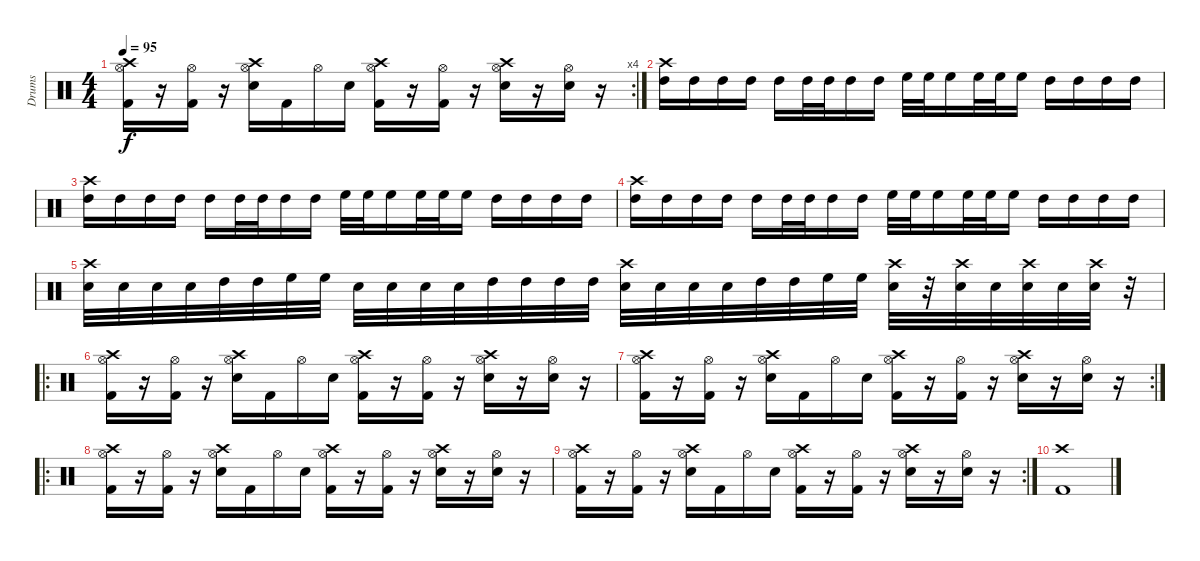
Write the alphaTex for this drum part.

\track ("Drums" "Drums") {instrument percussion}
\staff {score}
\articulation defaults
\rc 4
\ts (4 4)
\tempo 95
\clef neutral
\ks c
("Kick (hit) 2" "Hi-Hat (open)" "Crash high (hit)").16{dy f} r.16 ("Kick (hit) 2" "Hi-Hat (open)").16 r.16 ("Electric Snare (hit)" "Hi-Hat (open)" "Crash high (hit)").16 "Kick (hit) 2".16 "Hi-Hat (open)".16 "Electric Snare (hit)".16 ("Kick (hit) 2" "Hi-Hat (open)" "Crash high (hit)").16 r.16 ("Kick (hit) 2" "Hi-Hat (open)").16 r.16 ("Electric Snare (hit)" "Hi-Hat (open)" "Crash high (hit)").16 r.16 ("Electric Snare (hit)" "Hi-Hat (open)").16 r.16 |
("High Tom (hit)" "Crash high (hit)").16 "High Tom (hit)".16 "High Tom (hit)".16 "High Tom (hit)".16 "High Tom (hit)".16 "High Tom (hit)".32 "High Tom (hit)".32 "High Tom (hit)".16 "High Tom (hit)".16 "High Floor Tom (hit)".32 "High Floor Tom (hit)".32 "High Floor Tom (hit)".16 "High Floor Tom (hit)".32 "High Floor Tom (hit)".32 "High Floor Tom (hit)".16 "High Tom (hit)".16 "High Tom (hit)".16 "High Tom (hit)".16 "High Tom (hit)".16 |
("High Tom (hit)" "Crash high (hit)").16 "High Tom (hit)".16 "High Tom (hit)".16 "High Tom (hit)".16 "High Tom (hit)".16 "High Tom (hit)".32 "High Tom (hit)".32 "High Tom (hit)".16 "High Tom (hit)".16 "High Floor Tom (hit)".32 "High Floor Tom (hit)".32 "High Floor Tom (hit)".16 "High Floor Tom (hit)".32 "High Floor Tom (hit)".32 "High Floor Tom (hit)".16 "High Tom (hit)".16 "High Tom (hit)".16 "High Tom (hit)".16 "High Tom (hit)".16 |
("High Tom (hit)" "Crash high (hit)").16 "High Tom (hit)".16 "High Tom (hit)".16 "High Tom (hit)".16 "High Tom (hit)".16 "High Tom (hit)".32 "High Tom (hit)".32 "High Tom (hit)".16 "High Tom (hit)".16 "High Floor Tom (hit)".32 "High Floor Tom (hit)".32 "High Floor Tom (hit)".16 "High Floor Tom (hit)".32 "High Floor Tom (hit)".32 "High Floor Tom (hit)".16 "High Tom (hit)".16 "High Tom (hit)".16 "High Tom (hit)".16 "High Tom (hit)".16 |
("Electric Snare (hit)" "Crash high (hit)").32 "Electric Snare (hit)".32 "Electric Snare (hit)".32 "Electric Snare (hit)".32 "High Tom (hit)".32 "High Tom (hit)".32 "High Floor Tom (hit)".32 "High Floor Tom (hit)".32 "Electric Snare (hit)".32 "Electric Snare (hit)".32 "Electric Snare (hit)".32 "Electric Snare (hit)".32 "High Tom (hit)".32 "High Tom (hit)".32 "High Tom (hit)".32 "High Tom (hit)".32 ("Electric Snare (hit)" "Crash high (hit)").32 "Electric Snare (hit)".32 "Electric Snare (hit)".32 "Electric Snare (hit)".32 "High Tom (hit)".32 "High Tom (hit)".32 "High Floor Tom (hit)".32 "High Floor Tom (hit)".32 ("Electric Snare (hit)" "Crash high (hit)").32 r.32 ("Electric Snare (hit)" "Crash high (hit)").32 "Electric Snare (hit)".32 ("Electric Snare (hit)" "Crash high (hit)").32 "Electric Snare (hit)".32 ("Electric Snare (hit)" "Crash high (hit)").32 r.32 |
\ro
("Kick (hit) 2" "Hi-Hat (open)" "Crash high (hit)").16 r.16 ("Kick (hit) 2" "Hi-Hat (open)").16 r.16 ("Electric Snare (hit)" "Hi-Hat (open)" "Crash high (hit)").16 "Kick (hit) 2".16 "Hi-Hat (open)".16 "Electric Snare (hit)".16 ("Kick (hit) 2" "Hi-Hat (open)" "Crash high (hit)").16 r.16 ("Kick (hit) 2" "Hi-Hat (open)").16 r.16 ("Electric Snare (hit)" "Hi-Hat (open)" "Crash high (hit)").16 r.16 ("Electric Snare (hit)" "Hi-Hat (open)").16 r.16 |
\rc 2
("Kick (hit) 2" "Hi-Hat (open)" "Crash high (hit)").16 r.16 ("Kick (hit) 2" "Hi-Hat (open)").16 r.16 ("Electric Snare (hit)" "Hi-Hat (open)" "Crash high (hit)").16 "Kick (hit) 2".16 "Hi-Hat (open)".16 "Electric Snare (hit)".16 ("Kick (hit) 2" "Hi-Hat (open)" "Crash high (hit)").16 r.16 ("Kick (hit) 2" "Hi-Hat (open)").16 r.16 ("Electric Snare (hit)" "Hi-Hat (open)" "Crash high (hit)").16 r.16 ("Electric Snare (hit)" "Hi-Hat (open)").16 r.16 |
\ro
("Kick (hit) 2" "Hi-Hat (open)" "Crash high (hit)").16 r.16 ("Kick (hit) 2" "Hi-Hat (open)").16 r.16 ("Electric Snare (hit)" "Hi-Hat (open)" "Crash high (hit)").16 "Kick (hit) 2".16 "Hi-Hat (open)".16 "Electric Snare (hit)".16 ("Kick (hit) 2" "Hi-Hat (open)" "Crash high (hit)").16 r.16 ("Kick (hit) 2" "Hi-Hat (open)").16 r.16 ("Electric Snare (hit)" "Hi-Hat (open)" "Crash high (hit)").16 r.16 ("Electric Snare (hit)" "Hi-Hat (open)").16 r.16 |
\rc 2
("Kick (hit) 2" "Hi-Hat (open)" "Crash high (hit)").16 r.16 ("Kick (hit) 2" "Hi-Hat (open)").16 r.16 ("Electric Snare (hit)" "Hi-Hat (open)" "Crash high (hit)").16 "Kick (hit) 2".16 "Hi-Hat (open)".16 "Electric Snare (hit)".16 ("Kick (hit) 2" "Hi-Hat (open)" "Crash high (hit)").16 r.16 ("Kick (hit) 2" "Hi-Hat (open)").16 r.16 ("Electric Snare (hit)" "Hi-Hat (open)" "Crash high (hit)").16 r.16 ("Electric Snare (hit)" "Hi-Hat (open)").16 r.16 |
("Kick (hit) 2" "Crash high (hit)").1
